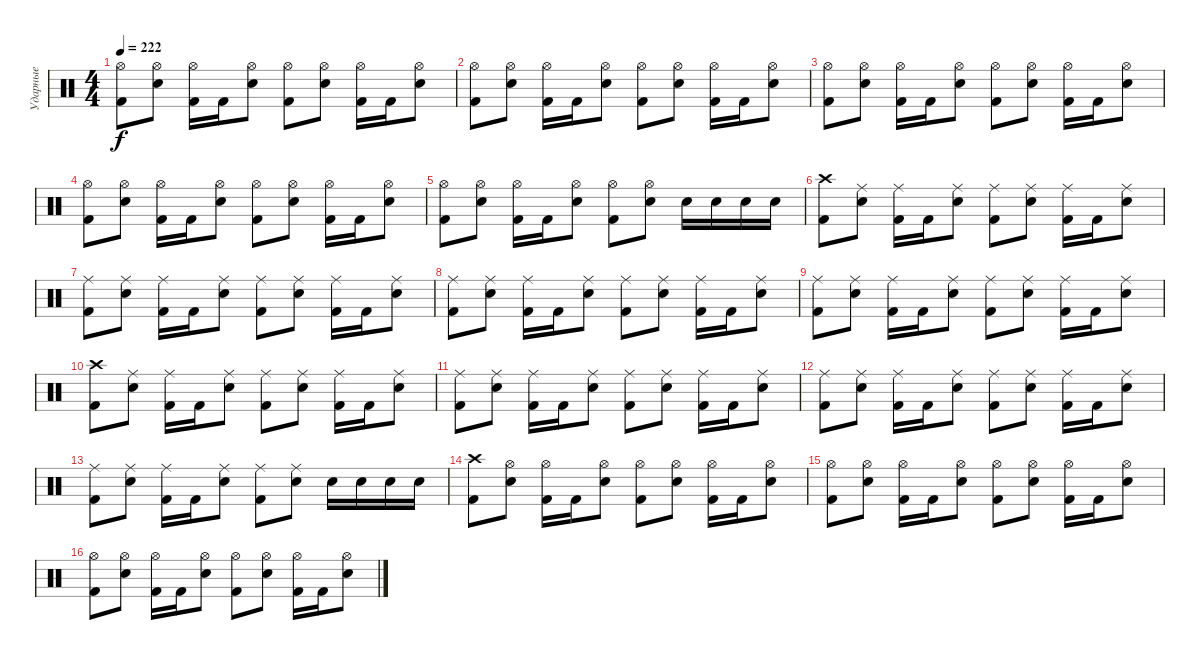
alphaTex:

\track ("Ударные" "Ударные") {instrument percussion}
\staff {score}
\articulation defaults
\ts (4 4)
\tempo 222
\clef neutral
\ks c
("Hi-Hat (open)" "Kick (hit) 2").8{dy f} ("Hi-Hat (open)" "Electric Snare (hit)").8 ("Hi-Hat (open)" "Kick (hit) 2").16 "Kick (hit) 2".16 ("Hi-Hat (open)" "Electric Snare (hit)").8 ("Hi-Hat (open)" "Kick (hit) 2").8 ("Hi-Hat (open)" "Electric Snare (hit)").8 ("Hi-Hat (open)" "Kick (hit) 2").16 "Kick (hit) 2".16 ("Hi-Hat (open)" "Electric Snare (hit)").8 |
("Hi-Hat (open)" "Kick (hit) 2").8 ("Hi-Hat (open)" "Electric Snare (hit)").8 ("Hi-Hat (open)" "Kick (hit) 2").16 "Kick (hit) 2".16 ("Hi-Hat (open)" "Electric Snare (hit)").8 ("Hi-Hat (open)" "Kick (hit) 2").8 ("Hi-Hat (open)" "Electric Snare (hit)").8 ("Hi-Hat (open)" "Kick (hit) 2").16 "Kick (hit) 2".16 ("Hi-Hat (open)" "Electric Snare (hit)").8 |
("Hi-Hat (open)" "Kick (hit) 2").8 ("Hi-Hat (open)" "Electric Snare (hit)").8 ("Hi-Hat (open)" "Kick (hit) 2").16 "Kick (hit) 2".16 ("Hi-Hat (open)" "Electric Snare (hit)").8 ("Hi-Hat (open)" "Kick (hit) 2").8 ("Hi-Hat (open)" "Electric Snare (hit)").8 ("Hi-Hat (open)" "Kick (hit) 2").16 "Kick (hit) 2".16 ("Hi-Hat (open)" "Electric Snare (hit)").8 |
("Hi-Hat (open)" "Kick (hit) 2").8 ("Hi-Hat (open)" "Electric Snare (hit)").8 ("Hi-Hat (open)" "Kick (hit) 2").16 "Kick (hit) 2".16 ("Hi-Hat (open)" "Electric Snare (hit)").8 ("Hi-Hat (open)" "Kick (hit) 2").8 ("Hi-Hat (open)" "Electric Snare (hit)").8 ("Hi-Hat (open)" "Kick (hit) 2").16 "Kick (hit) 2".16 ("Hi-Hat (open)" "Electric Snare (hit)").8 |
("Hi-Hat (open)" "Kick (hit) 2").8 ("Hi-Hat (open)" "Electric Snare (hit)").8 ("Hi-Hat (open)" "Kick (hit) 2").16 "Kick (hit) 2".16 ("Hi-Hat (open)" "Electric Snare (hit)").8 ("Hi-Hat (open)" "Kick (hit) 2").8 ("Hi-Hat (open)" "Electric Snare (hit)").8 "Electric Snare (hit)".16 "Electric Snare (hit)".16 "Electric Snare (hit)".16 "Electric Snare (hit)".16 |
("Crash high (hit)" "Kick (hit) 2").8 ("Ride (middle)" "Electric Snare (hit)").8 ("Ride (middle)" "Kick (hit) 2").16 "Kick (hit) 2".16 ("Ride (middle)" "Electric Snare (hit)").8 ("Ride (middle)" "Kick (hit) 2").8 ("Ride (middle)" "Electric Snare (hit)").8 ("Ride (middle)" "Kick (hit) 2").16 "Kick (hit) 2".16 ("Ride (middle)" "Electric Snare (hit)").8 |
("Ride (middle)" "Kick (hit) 2").8 ("Ride (middle)" "Electric Snare (hit)").8 ("Ride (middle)" "Kick (hit) 2").16 "Kick (hit) 2".16 ("Ride (middle)" "Electric Snare (hit)").8 ("Ride (middle)" "Kick (hit) 2").8 ("Ride (middle)" "Electric Snare (hit)").8 ("Ride (middle)" "Kick (hit) 2").16 "Kick (hit) 2".16 ("Ride (middle)" "Electric Snare (hit)").8 |
("Ride (middle)" "Kick (hit) 2").8 ("Ride (middle)" "Electric Snare (hit)").8 ("Ride (middle)" "Kick (hit) 2").16 "Kick (hit) 2".16 ("Ride (middle)" "Electric Snare (hit)").8 ("Ride (middle)" "Kick (hit) 2").8 ("Ride (middle)" "Electric Snare (hit)").8 ("Ride (middle)" "Kick (hit) 2").16 "Kick (hit) 2".16 ("Ride (middle)" "Electric Snare (hit)").8 |
("Ride (middle)" "Kick (hit) 2").8 ("Ride (middle)" "Electric Snare (hit)").8 ("Ride (middle)" "Kick (hit) 2").16 "Kick (hit) 2".16 ("Ride (middle)" "Electric Snare (hit)").8 ("Ride (middle)" "Kick (hit) 2").8 ("Ride (middle)" "Electric Snare (hit)").8 ("Ride (middle)" "Kick (hit) 2").16 "Kick (hit) 2".16 ("Ride (middle)" "Electric Snare (hit)").8 |
("Crash high (hit)" "Kick (hit) 2").8 ("Ride (middle)" "Electric Snare (hit)").8 ("Ride (middle)" "Kick (hit) 2").16 "Kick (hit) 2".16 ("Ride (middle)" "Electric Snare (hit)").8 ("Ride (middle)" "Kick (hit) 2").8 ("Ride (middle)" "Electric Snare (hit)").8 ("Ride (middle)" "Kick (hit) 2").16 "Kick (hit) 2".16 ("Ride (middle)" "Electric Snare (hit)").8 |
("Ride (middle)" "Kick (hit) 2").8 ("Ride (middle)" "Electric Snare (hit)").8 ("Ride (middle)" "Kick (hit) 2").16 "Kick (hit) 2".16 ("Ride (middle)" "Electric Snare (hit)").8 ("Ride (middle)" "Kick (hit) 2").8 ("Ride (middle)" "Electric Snare (hit)").8 ("Ride (middle)" "Kick (hit) 2").16 "Kick (hit) 2".16 ("Ride (middle)" "Electric Snare (hit)").8 |
("Ride (middle)" "Kick (hit) 2").8 ("Ride (middle)" "Electric Snare (hit)").8 ("Ride (middle)" "Kick (hit) 2").16 "Kick (hit) 2".16 ("Ride (middle)" "Electric Snare (hit)").8 ("Ride (middle)" "Kick (hit) 2").8 ("Ride (middle)" "Electric Snare (hit)").8 ("Ride (middle)" "Kick (hit) 2").16 "Kick (hit) 2".16 ("Ride (middle)" "Electric Snare (hit)").8 |
("Ride (middle)" "Kick (hit) 2").8 ("Ride (middle)" "Electric Snare (hit)").8 ("Ride (middle)" "Kick (hit) 2").16 "Kick (hit) 2".16 ("Ride (middle)" "Electric Snare (hit)").8 ("Ride (middle)" "Kick (hit) 2").8 ("Ride (middle)" "Electric Snare (hit)").8 "Electric Snare (hit)".16 "Electric Snare (hit)".16 "Electric Snare (hit)".16 "Electric Snare (hit)".16 |
("Crash high (hit)" "Kick (hit) 2").8 ("Hi-Hat (open)" "Electric Snare (hit)").8 ("Hi-Hat (open)" "Kick (hit) 2").16 "Kick (hit) 2".16 ("Hi-Hat (open)" "Electric Snare (hit)").8 ("Hi-Hat (open)" "Kick (hit) 2").8 ("Hi-Hat (open)" "Electric Snare (hit)").8 ("Hi-Hat (open)" "Kick (hit) 2").16 "Kick (hit) 2".16 ("Hi-Hat (open)" "Electric Snare (hit)").8 |
("Hi-Hat (open)" "Kick (hit) 2").8 ("Hi-Hat (open)" "Electric Snare (hit)").8 ("Hi-Hat (open)" "Kick (hit) 2").16 "Kick (hit) 2".16 ("Hi-Hat (open)" "Electric Snare (hit)").8 ("Hi-Hat (open)" "Kick (hit) 2").8 ("Hi-Hat (open)" "Electric Snare (hit)").8 ("Hi-Hat (open)" "Kick (hit) 2").16 "Kick (hit) 2".16 ("Hi-Hat (open)" "Electric Snare (hit)").8 |
("Hi-Hat (open)" "Kick (hit) 2").8 ("Hi-Hat (open)" "Electric Snare (hit)").8 ("Hi-Hat (open)" "Kick (hit) 2").16 "Kick (hit) 2".16 ("Hi-Hat (open)" "Electric Snare (hit)").8 ("Hi-Hat (open)" "Kick (hit) 2").8 ("Hi-Hat (open)" "Electric Snare (hit)").8 ("Hi-Hat (open)" "Kick (hit) 2").16 "Kick (hit) 2".16 ("Hi-Hat (open)" "Electric Snare (hit)").8
